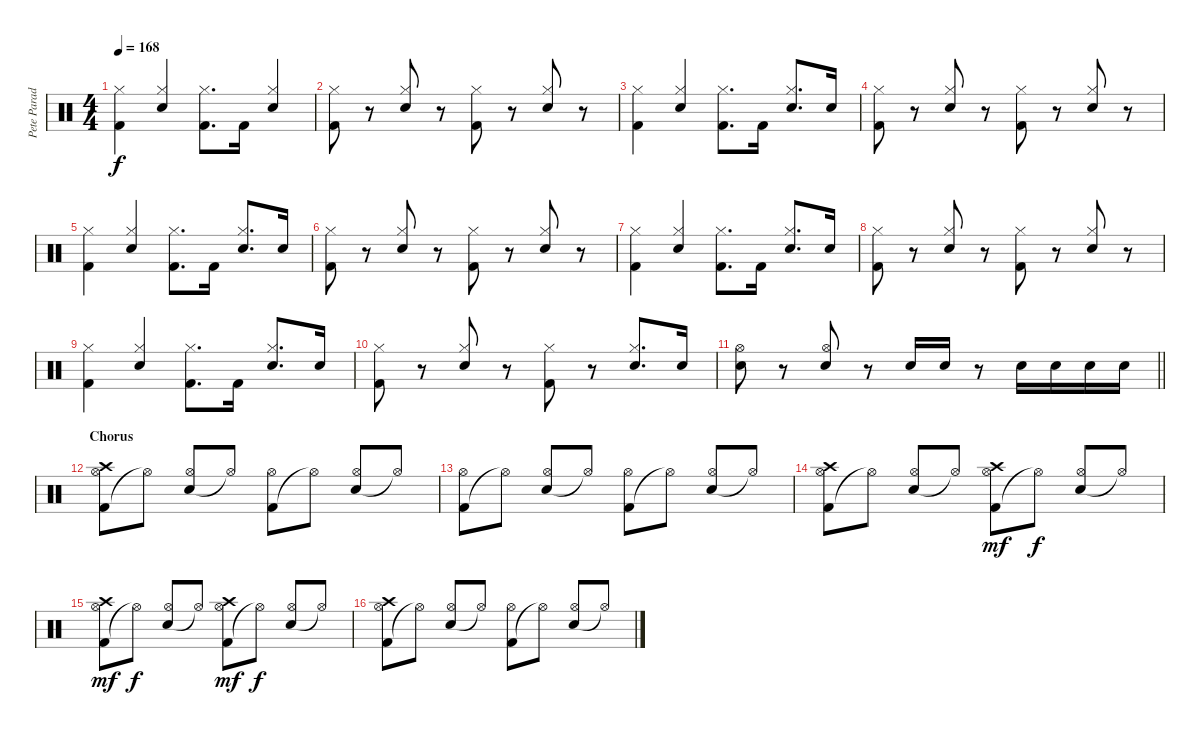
\track ("Pete Parada" "Pete Parad") {instrument percussion}
\staff {score}
\articulation defaults
\ts (4 4)
\tempo 168
\clef neutral
\ks c
("Kick (hit) 2" "Hi-Hat (closed)").4{dy f beam Down} ("Electric Snare (hit)" "Hi-Hat (closed)").4{beam Up} ("Kick (hit) 2" "Hi-Hat (closed)").8{d} "Kick (hit) 2".16 ("Electric Snare (hit)" "Hi-Hat (closed)").4{beam Up} |
("Kick (hit) 2" "Hi-Hat (closed)").8 r.8 ("Electric Snare (hit)" "Hi-Hat (closed)").8{beam Up} r.8 ("Kick (hit) 2" "Hi-Hat (closed)").8 r.8 ("Electric Snare (hit)" "Hi-Hat (closed)").8{beam Up} r.8 |
("Kick (hit) 2" "Hi-Hat (closed)").4{beam Down} ("Electric Snare (hit)" "Hi-Hat (closed)").4{beam Up} ("Kick (hit) 2" "Hi-Hat (closed)").8{d} "Kick (hit) 2".16 ("Electric Snare (hit)" "Hi-Hat (closed)").8{d beam Up} "Electric Snare (hit)".16 |
("Kick (hit) 2" "Hi-Hat (closed)").8 r.8 ("Electric Snare (hit)" "Hi-Hat (closed)").8{beam Up} r.8 ("Kick (hit) 2" "Hi-Hat (closed)").8 r.8 ("Electric Snare (hit)" "Hi-Hat (closed)").8{beam Up} r.8 |
("Kick (hit) 2" "Hi-Hat (closed)").4{beam Down} ("Electric Snare (hit)" "Hi-Hat (closed)").4{beam Up} ("Kick (hit) 2" "Hi-Hat (closed)").8{d} "Kick (hit) 2".16 ("Electric Snare (hit)" "Hi-Hat (closed)").8{d beam Up} "Electric Snare (hit)".16 |
("Kick (hit) 2" "Hi-Hat (closed)").8 r.8 ("Electric Snare (hit)" "Hi-Hat (closed)").8{beam Up} r.8 ("Kick (hit) 2" "Hi-Hat (closed)").8 r.8 ("Electric Snare (hit)" "Hi-Hat (closed)").8{beam Up} r.8 |
("Kick (hit) 2" "Hi-Hat (closed)").4{beam Down} ("Electric Snare (hit)" "Hi-Hat (closed)").4{beam Up} ("Kick (hit) 2" "Hi-Hat (closed)").8{d} "Kick (hit) 2".16 ("Electric Snare (hit)" "Hi-Hat (closed)").8{d beam Up} "Electric Snare (hit)".16 |
("Kick (hit) 2" "Hi-Hat (closed)").8 r.8 ("Electric Snare (hit)" "Hi-Hat (closed)").8{beam Up} r.8 ("Kick (hit) 2" "Hi-Hat (closed)").8 r.8 ("Electric Snare (hit)" "Hi-Hat (closed)").8{beam Up} r.8 |
("Kick (hit) 2" "Hi-Hat (closed)").4{beam Down} ("Electric Snare (hit)" "Hi-Hat (closed)").4{beam Up} ("Kick (hit) 2" "Hi-Hat (closed)").8{d} "Kick (hit) 2".16 ("Electric Snare (hit)" "Hi-Hat (closed)").8{d beam Up} "Electric Snare (hit)".16 |
("Kick (hit) 2" "Hi-Hat (closed)").8 r.8 ("Electric Snare (hit)" "Hi-Hat (closed)").8{beam Up} r.8 ("Kick (hit) 2" "Hi-Hat (closed)").8 r.8 ("Electric Snare (hit)" "Hi-Hat (closed)").8{d beam Up} "Electric Snare (hit)".16 |
\barLineRight lightlight
("Electric Snare (hit)" "Hi-Hat (open)").8 r.8 ("Electric Snare (hit)" "Hi-Hat (open)").8{beam Up} r.8 "Electric Snare (hit)".16 "Electric Snare (hit)".16{beam Up} r.8 "Electric Snare (hit)".16 "Electric Snare (hit)".16 "Electric Snare (hit)".16 "Electric Snare (hit)".16 |
\section ("" "Chorus")
("Kick (hit) 2" "Hi-Hat (open)" "Crash high (hit)").8 "Hi-Hat (open)"{t}.8 ("Electric Snare (hit)" "Hi-Hat (open)").8{beam Up} "Hi-Hat (open)"{t}.8{beam Up} ("Kick (hit) 2" "Hi-Hat (open)").8 "Hi-Hat (open)"{t}.8 ("Electric Snare (hit)" "Hi-Hat (open)").8{beam Up} "Hi-Hat (open)"{t}.8{beam Up} |
("Kick (hit) 2" "Hi-Hat (open)").8 "Hi-Hat (open)"{t}.8 ("Electric Snare (hit)" "Hi-Hat (open)").8{beam Up} "Hi-Hat (open)"{t}.8{beam Up} ("Kick (hit) 2" "Hi-Hat (open)").8 "Hi-Hat (open)"{t}.8 ("Electric Snare (hit)" "Hi-Hat (open)").8{beam Up} "Hi-Hat (open)"{t}.8{beam Up} |
("Kick (hit) 2" "Hi-Hat (open)" "Crash high (hit)").8 "Hi-Hat (open)"{t}.8 ("Electric Snare (hit)" "Hi-Hat (open)").8{beam Up} "Hi-Hat (open)"{t}.8{beam Up} ("Kick (hit) 2" "Hi-Hat (open)" "Crash high (hit)").8{dy mf} "Hi-Hat (open)"{t}.8{dy f} ("Electric Snare (hit)" "Hi-Hat (open)").8{beam Up} "Hi-Hat (open)"{t}.8{beam Up} |
("Kick (hit) 2" "Hi-Hat (open)" "Crash high (hit)").8{dy mf} "Hi-Hat (open)"{t}.8{dy f} ("Electric Snare (hit)" "Hi-Hat (open)").8{beam Up} "Hi-Hat (open)"{t}.8{beam Up} ("Kick (hit) 2" "Hi-Hat (open)" "Crash high (hit)").8{dy mf} "Hi-Hat (open)"{t}.8{dy f} ("Electric Snare (hit)" "Hi-Hat (open)").8{beam Up} "Hi-Hat (open)"{t}.8{beam Up} |
("Kick (hit) 2" "Hi-Hat (open)" "Crash high (hit)").8 "Hi-Hat (open)"{t}.8 ("Electric Snare (hit)" "Hi-Hat (open)").8{beam Up} "Hi-Hat (open)"{t}.8{beam Up} ("Kick (hit) 2" "Hi-Hat (open)").8 "Hi-Hat (open)"{t}.8 ("Electric Snare (hit)" "Hi-Hat (open)").8{beam Up} "Hi-Hat (open)"{t}.8{beam Up}
